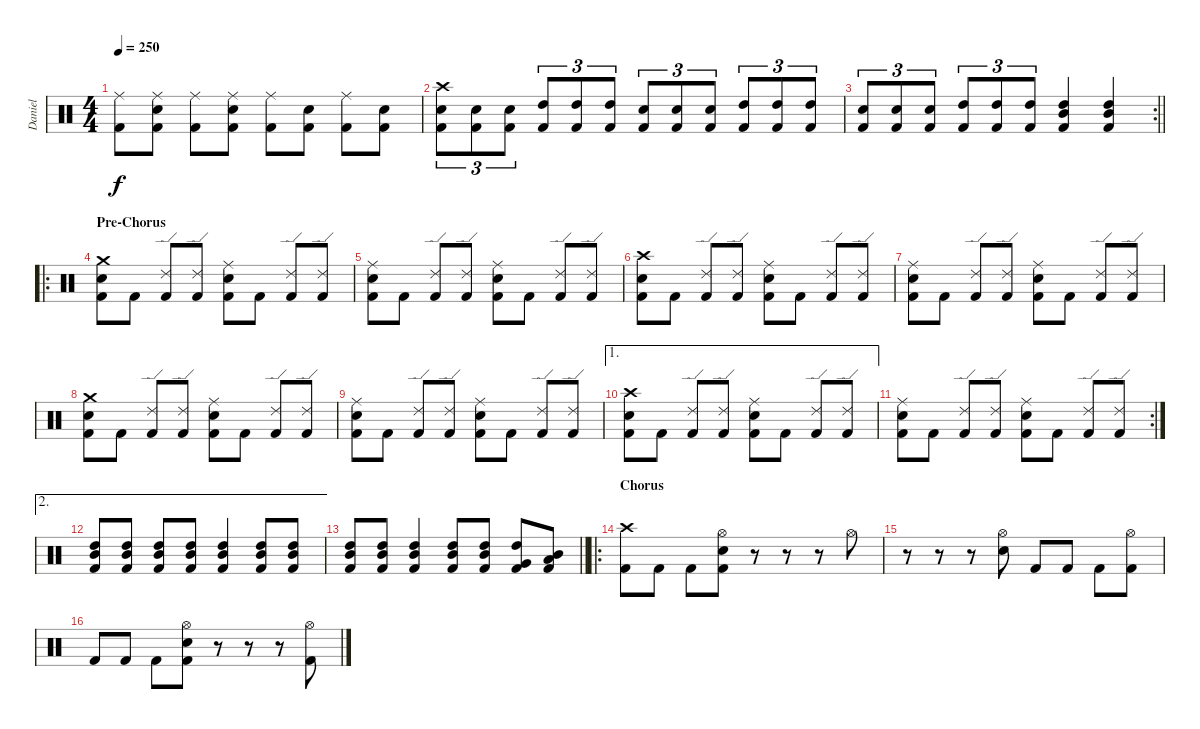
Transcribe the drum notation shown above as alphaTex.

\track ("Daniel" "Daniel") {instrument percussion}
\staff {score}
\articulation defaults
\ts (4 4)
\tempo 250
\clef neutral
\ks c
("Ride (middle)" "Kick (hit) 2").8{dy f} ("Ride (middle)" "Snare (hit) 2" "Kick (hit) 2").8 ("Ride (middle)" "Kick (hit) 2").8 ("Ride (middle)" "Snare (hit) 2" "Kick (hit) 2").8 ("Ride (middle)" "Kick (hit) 2").8 ("Snare (hit) 2" "Kick (hit) 2").8 ("Ride (middle)" "Kick (hit) 2").8 ("Snare (hit) 2" "Kick (hit) 2").8 |
("Crash high (hit)" "Snare (hit) 2" "Kick (hit) 2").8{tu (3 2)} ("Snare (hit) 2" "Kick (hit) 2").8{tu (3 2)} ("Snare (hit) 2" "Kick (hit) 2").8{tu (3 2)} ("High Tom (hit)" "Kick (hit) 2").8{tu (3 2)} ("High Tom (hit)" "Kick (hit) 2").8{tu (3 2)} ("High Tom (hit)" "Kick (hit) 2").8{tu (3 2)} ("Snare (hit) 2" "Kick (hit) 2").8{tu (3 2)} ("Snare (hit) 2" "Kick (hit) 2").8{tu (3 2)} ("Snare (hit) 2" "Kick (hit) 2").8{tu (3 2)} ("High Tom (hit)" "Kick (hit) 2").8{tu (3 2)} ("High Tom (hit)" "Kick (hit) 2").8{tu (3 2)} ("High Tom (hit)" "Kick (hit) 2").8{tu (3 2)} |
\rc 2
\barLineRight lightlight
("Snare (hit) 2" "Kick (hit) 2").8{tu (3 2)} ("Snare (hit) 2" "Kick (hit) 2").8{tu (3 2)} ("Snare (hit) 2" "Kick (hit) 2").8{tu (3 2)} ("High Tom (hit)" "Kick (hit) 2").8{tu (3 2)} ("High Tom (hit)" "Kick (hit) 2").8{tu (3 2)} ("High Tom (hit)" "Kick (hit) 2").8{tu (3 2)} ("High Tom (hit)" "Mid Tom (hit)" "Kick (hit) 2").4 ("High Tom (hit)" "Mid Tom (hit)" "Kick (hit) 2").4 |
\ro
\section ("" "Pre-Chorus")
("Crash medium (hit)" "Snare (hit) 2" "Kick (hit) 2").8 "Kick (hit) 2".8 ("Ride (edge) 2" "Kick (hit) 2").8 ("Ride (edge) 2" "Kick (hit) 2").8 ("Ride (middle)" "Snare (hit) 2" "Kick (hit) 2").8 "Kick (hit) 2".8 ("Ride (edge) 2" "Kick (hit) 2").8 ("Ride (edge) 2" "Kick (hit) 2").8 |
("Ride (middle)" "Snare (hit) 2" "Kick (hit) 2").8 "Kick (hit) 2".8 ("Ride (edge) 2" "Kick (hit) 2").8 ("Ride (edge) 2" "Kick (hit) 2").8 ("Ride (middle)" "Snare (hit) 2" "Kick (hit) 2").8 "Kick (hit) 2".8 ("Ride (edge) 2" "Kick (hit) 2").8 ("Ride (edge) 2" "Kick (hit) 2").8 |
("Crash high (hit)" "Snare (hit) 2" "Kick (hit) 2").8 "Kick (hit) 2".8 ("Ride (edge) 2" "Kick (hit) 2").8 ("Ride (edge) 2" "Kick (hit) 2").8 ("Ride (middle)" "Snare (hit) 2" "Kick (hit) 2").8 "Kick (hit) 2".8 ("Ride (edge) 2" "Kick (hit) 2").8 ("Ride (edge) 2" "Kick (hit) 2").8 |
("Ride (middle)" "Snare (hit) 2" "Kick (hit) 2").8 "Kick (hit) 2".8 ("Ride (edge) 2" "Kick (hit) 2").8 ("Ride (edge) 2" "Kick (hit) 2").8 ("Ride (middle)" "Snare (hit) 2" "Kick (hit) 2").8 "Kick (hit) 2".8 ("Ride (edge) 2" "Kick (hit) 2").8 ("Ride (edge) 2" "Kick (hit) 2").8 |
("Crash medium (hit)" "Snare (hit) 2" "Kick (hit) 2").8 "Kick (hit) 2".8 ("Ride (edge) 2" "Kick (hit) 2").8 ("Ride (edge) 2" "Kick (hit) 2").8 ("Ride (middle)" "Snare (hit) 2" "Kick (hit) 2").8 "Kick (hit) 2".8 ("Ride (edge) 2" "Kick (hit) 2").8 ("Ride (edge) 2" "Kick (hit) 2").8 |
("Ride (middle)" "Snare (hit) 2" "Kick (hit) 2").8 "Kick (hit) 2".8 ("Ride (edge) 2" "Kick (hit) 2").8 ("Ride (edge) 2" "Kick (hit) 2").8 ("Ride (middle)" "Snare (hit) 2" "Kick (hit) 2").8 "Kick (hit) 2".8 ("Ride (edge) 2" "Kick (hit) 2").8 ("Ride (edge) 2" "Kick (hit) 2").8 |
\ae 1
("Crash high (hit)" "Snare (hit) 2" "Kick (hit) 2").8 "Kick (hit) 2".8 ("Ride (edge) 2" "Kick (hit) 2").8 ("Ride (edge) 2" "Kick (hit) 2").8 ("Ride (middle)" "Snare (hit) 2" "Kick (hit) 2").8 "Kick (hit) 2".8 ("Ride (edge) 2" "Kick (hit) 2").8 ("Ride (edge) 2" "Kick (hit) 2").8 |
\rc 2
("Ride (middle)" "Snare (hit) 2" "Kick (hit) 2").8 "Kick (hit) 2".8 ("Ride (edge) 2" "Kick (hit) 2").8 ("Ride (edge) 2" "Kick (hit) 2").8 ("Ride (middle)" "Snare (hit) 2" "Kick (hit) 2").8 "Kick (hit) 2".8 ("Ride (edge) 2" "Kick (hit) 2").8 ("Ride (edge) 2" "Kick (hit) 2").8 |
\ae 2
("High Tom (hit)" "Mid Tom (hit)" "Kick (hit) 2").8 ("High Tom (hit)" "Mid Tom (hit)" "Kick (hit) 2").8 ("High Tom (hit)" "Mid Tom (hit)" "Kick (hit) 2").8 ("High Tom (hit)" "Mid Tom (hit)" "Kick (hit) 2").8 ("High Tom (hit)" "Mid Tom (hit)" "Kick (hit) 2").4 ("High Tom (hit)" "Mid Tom (hit)" "Kick (hit) 2").8 ("High Tom (hit)" "Mid Tom (hit)" "Kick (hit) 2").8 |
\barLineRight lightlight
("High Tom (hit)" "Mid Tom (hit)" "Kick (hit) 2").8 ("High Tom (hit)" "Mid Tom (hit)" "Kick (hit) 2").8 ("High Tom (hit)" "Mid Tom (hit)" "Kick (hit) 2").4 ("High Tom (hit)" "Mid Tom (hit)" "Kick (hit) 2").8 ("High Tom (hit)" "Mid Tom (hit)" "Kick (hit) 2").8 ("High Tom (hit)" "Very Low Tom (hit)" "Kick (hit) 2").8 ("Mid Tom (hit)" "Low Floor Tom (hit)" "Kick (hit) 2").8 |
\ro
\section ("" "Chorus")
("Crash high (hit)" "Kick (hit) 2").8 "Kick (hit) 2".8 "Kick (hit) 2".8 ("Hi-Hat (open)" "Snare (hit) 2" "Kick (hit) 2").8 r.8 r.8 r.8 "Hi-Hat (open)".8 |
r.8 r.8 r.8 ("Hi-Hat (open)" "Snare (hit) 2").8 "Kick (hit) 2".8 "Kick (hit) 2".8 "Kick (hit) 2".8 ("Hi-Hat (open)" "Kick (hit) 2").8 |
"Kick (hit) 2".8 "Kick (hit) 2".8 "Kick (hit) 2".8 ("Hi-Hat (open)" "Snare (hit) 2" "Kick (hit) 2").8 r.8 r.8 r.8 ("Hi-Hat (open)" "Kick (hit) 2").8
